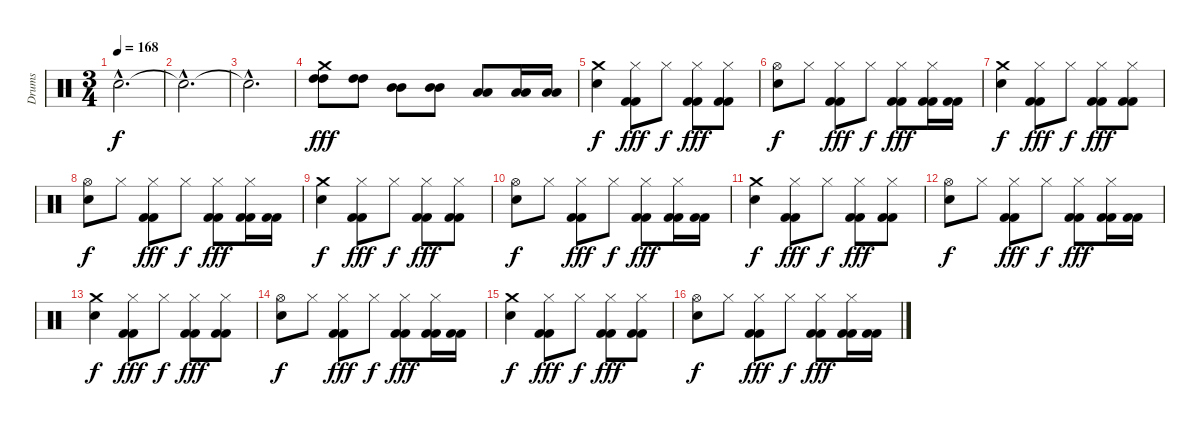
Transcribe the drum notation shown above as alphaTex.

\track ("Drums" "Drums") {instrument percussion}
\staff {score}
\articulation defaults
\ts (3 4)
\tempo 168
\clef neutral
\ks c "Snare (hit)"{hac t}.2{d dy f}
|
"Snare (hit)"{hac t}.2{d} |
"Snare (hit)"{hac t}.2{d} |
("High Tom (hit)" "High Tom (hit)" "Crash medium (hit)").8{dy fff} ("High Tom (hit)" "High Tom (hit)").8 ("Mid Tom (hit)" "Mid Tom (hit)").8 ("Mid Tom (hit)" "Mid Tom (hit)").8 ("Low Tom (hit)" "Low Tom (hit)").8 ("Low Tom (hit)" "Low Tom (hit)").16 ("Low Tom (hit)" "Low Tom (hit)").16 |
("Crash medium (hit)" "Electric Snare (hit)").4{dy f} ("Hi-Hat (closed)" "Kick (hit) 2" "Kick (hit) 2").8{dy fff} "Hi-Hat (closed)".8{dy f} ("Hi-Hat (closed)" "Kick (hit) 2" "Kick (hit) 2").8{dy fff} ("Hi-Hat (closed)" "Kick (hit) 2" "Kick (hit) 2").8 |
("Hi-Hat (open)" "Electric Snare (hit)").8{dy f} "Hi-Hat (closed)".8 ("Hi-Hat (closed)" "Kick (hit) 2" "Kick (hit) 2").8{dy fff} "Hi-Hat (closed)".8{dy f} ("Hi-Hat (closed)" "Kick (hit) 2" "Kick (hit) 2").8{dy fff} ("Hi-Hat (closed)" "Kick (hit) 2" "Kick (hit) 2").16 ("Kick (hit) 2" "Kick (hit) 2").16 |
("Crash medium (hit)" "Electric Snare (hit)").4{dy f} ("Hi-Hat (closed)" "Kick (hit) 2" "Kick (hit) 2").8{dy fff} "Hi-Hat (closed)".8{dy f} ("Hi-Hat (closed)" "Kick (hit) 2" "Kick (hit) 2").8{dy fff} ("Hi-Hat (closed)" "Kick (hit) 2" "Kick (hit) 2").8 |
("Hi-Hat (open)" "Electric Snare (hit)").8{dy f} "Hi-Hat (closed)".8 ("Hi-Hat (closed)" "Kick (hit) 2" "Kick (hit) 2").8{dy fff} "Hi-Hat (closed)".8{dy f} ("Hi-Hat (closed)" "Kick (hit) 2" "Kick (hit) 2").8{dy fff} ("Hi-Hat (closed)" "Kick (hit) 2" "Kick (hit) 2").16 ("Kick (hit) 2" "Kick (hit) 2").16 |
("Crash medium (hit)" "Electric Snare (hit)").4{dy f} ("Hi-Hat (closed)" "Kick (hit) 2" "Kick (hit) 2").8{dy fff} "Hi-Hat (closed)".8{dy f} ("Hi-Hat (closed)" "Kick (hit) 2" "Kick (hit) 2").8{dy fff} ("Hi-Hat (closed)" "Kick (hit) 2" "Kick (hit) 2").8 |
("Hi-Hat (open)" "Electric Snare (hit)").8{dy f} "Hi-Hat (closed)".8 ("Hi-Hat (closed)" "Kick (hit) 2" "Kick (hit) 2").8{dy fff} "Hi-Hat (closed)".8{dy f} ("Hi-Hat (closed)" "Kick (hit) 2" "Kick (hit) 2").8{dy fff} ("Hi-Hat (closed)" "Kick (hit) 2" "Kick (hit) 2").16 ("Kick (hit) 2" "Kick (hit) 2").16 |
("Crash medium (hit)" "Electric Snare (hit)").4{dy f} ("Hi-Hat (closed)" "Kick (hit) 2" "Kick (hit) 2").8{dy fff} "Hi-Hat (closed)".8{dy f} ("Hi-Hat (closed)" "Kick (hit) 2" "Kick (hit) 2").8{dy fff} ("Hi-Hat (closed)" "Kick (hit) 2" "Kick (hit) 2").8 |
("Hi-Hat (open)" "Electric Snare (hit)").8{dy f} "Hi-Hat (closed)".8 ("Hi-Hat (closed)" "Kick (hit) 2" "Kick (hit) 2").8{dy fff} "Hi-Hat (closed)".8{dy f} ("Hi-Hat (closed)" "Kick (hit) 2" "Kick (hit) 2").8{dy fff} ("Hi-Hat (closed)" "Kick (hit) 2" "Kick (hit) 2").16 ("Kick (hit) 2" "Kick (hit) 2").16 |
("Crash medium (hit)" "Electric Snare (hit)").4{dy f} ("Hi-Hat (closed)" "Kick (hit) 2" "Kick (hit) 2").8{dy fff} "Hi-Hat (closed)".8{dy f} ("Hi-Hat (closed)" "Kick (hit) 2" "Kick (hit) 2").8{dy fff} ("Hi-Hat (closed)" "Kick (hit) 2" "Kick (hit) 2").8 |
("Hi-Hat (open)" "Electric Snare (hit)").8{dy f} "Hi-Hat (closed)".8 ("Hi-Hat (closed)" "Kick (hit) 2" "Kick (hit) 2").8{dy fff} "Hi-Hat (closed)".8{dy f} ("Hi-Hat (closed)" "Kick (hit) 2" "Kick (hit) 2").8{dy fff} ("Hi-Hat (closed)" "Kick (hit) 2" "Kick (hit) 2").16 ("Kick (hit) 2" "Kick (hit) 2").16 |
("Crash medium (hit)" "Electric Snare (hit)").4{dy f} ("Hi-Hat (closed)" "Kick (hit) 2" "Kick (hit) 2").8{dy fff} "Hi-Hat (closed)".8{dy f} ("Hi-Hat (closed)" "Kick (hit) 2" "Kick (hit) 2").8{dy fff} ("Hi-Hat (closed)" "Kick (hit) 2" "Kick (hit) 2").8 |
("Hi-Hat (open)" "Electric Snare (hit)").8{dy f} "Hi-Hat (closed)".8 ("Hi-Hat (closed)" "Kick (hit) 2" "Kick (hit) 2").8{dy fff} "Hi-Hat (closed)".8{dy f} ("Hi-Hat (closed)" "Kick (hit) 2" "Kick (hit) 2").8{dy fff} ("Hi-Hat (closed)" "Kick (hit) 2" "Kick (hit) 2").16 ("Kick (hit) 2" "Kick (hit) 2").16
